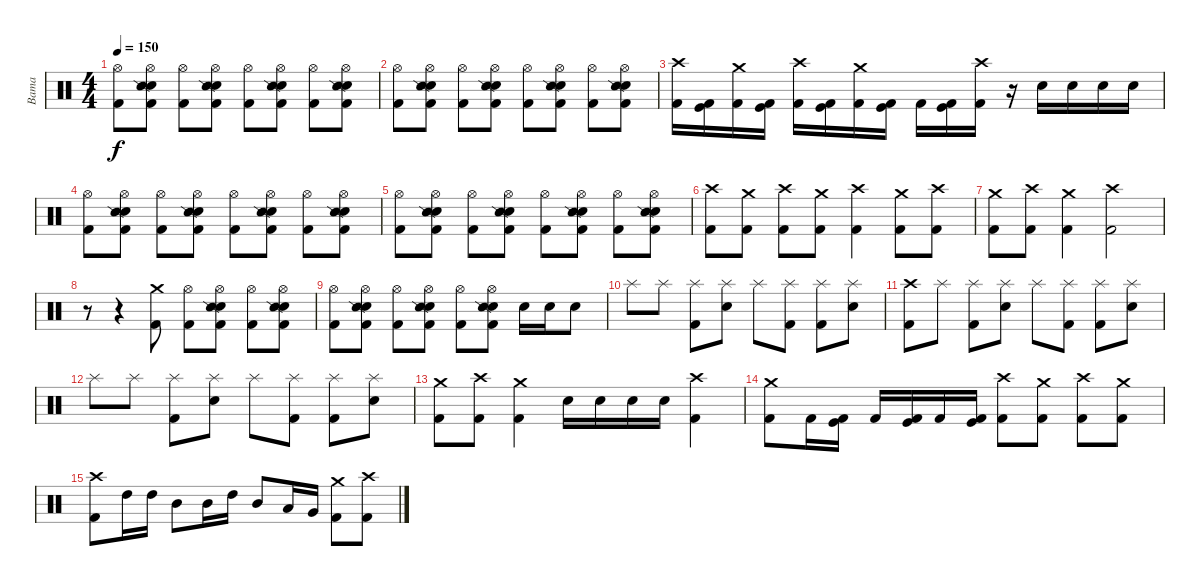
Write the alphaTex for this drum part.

\track ("Bama" "Bama") {instrument percussion}
\staff {score}
\articulation defaults
\ts (4 4)
\tempo 150
\clef neutral
\ks c
("Hi-Hat (open)" "Kick (hit) 2").8{dy f} ("Hi-Hat (open)" "Electric Snare (hit)" "Snare (side stick) 2" "Kick (hit) 2").8 ("Hi-Hat (open)" "Kick (hit) 2").8 ("Hi-Hat (open)" "Electric Snare (hit)" "Snare (side stick) 2" "Kick (hit) 2").8 ("Hi-Hat (open)" "Kick (hit) 2").8 ("Hi-Hat (open)" "Electric Snare (hit)" "Snare (side stick) 2" "Kick (hit) 2").8 ("Hi-Hat (open)" "Kick (hit) 2").8 ("Hi-Hat (open)" "Electric Snare (hit)" "Snare (side stick) 2" "Kick (hit) 2").8 |
("Hi-Hat (open)" "Kick (hit) 2").8 ("Hi-Hat (open)" "Electric Snare (hit)" "Snare (side stick) 2" "Kick (hit) 2").8 ("Hi-Hat (open)" "Kick (hit) 2").8 ("Hi-Hat (open)" "Electric Snare (hit)" "Snare (side stick) 2" "Kick (hit) 2").8 ("Hi-Hat (open)" "Kick (hit) 2").8 ("Hi-Hat (open)" "Electric Snare (hit)" "Snare (side stick) 2" "Kick (hit) 2").8 ("Hi-Hat (open)" "Kick (hit) 2").8 ("Hi-Hat (open)" "Electric Snare (hit)" "Snare (side stick) 2" "Kick (hit) 2").8 |
("Crash high (hit)" "Kick (hit) 2").16 ("Kick (hit)" "Kick (hit) 2").16 ("Crash medium (hit)" "Kick (hit) 2").16 ("Kick (hit)" "Kick (hit) 2").16 ("Crash high (hit)" "Kick (hit) 2").16 ("Kick (hit)" "Kick (hit) 2").16 ("Crash medium (hit)" "Kick (hit) 2").16 ("Kick (hit)" "Kick (hit) 2").16 "Kick (hit) 2".16 ("Kick (hit)" "Kick (hit) 2").16 ("Crash high (hit)" "Kick (hit) 2").16 r.16 "Electric Snare (hit)".16 "Electric Snare (hit)".16 "Electric Snare (hit)".16 "Electric Snare (hit)".16 |
("Hi-Hat (open)" "Kick (hit) 2").8 ("Hi-Hat (open)" "Electric Snare (hit)" "Snare (side stick) 2" "Kick (hit) 2").8 ("Hi-Hat (open)" "Kick (hit) 2").8 ("Hi-Hat (open)" "Electric Snare (hit)" "Snare (side stick) 2" "Kick (hit) 2").8 ("Hi-Hat (open)" "Kick (hit) 2").8 ("Hi-Hat (open)" "Electric Snare (hit)" "Snare (side stick) 2" "Kick (hit) 2").8 ("Hi-Hat (open)" "Kick (hit) 2").8 ("Hi-Hat (open)" "Electric Snare (hit)" "Snare (side stick) 2" "Kick (hit) 2").8 |
("Hi-Hat (open)" "Kick (hit) 2").8 ("Hi-Hat (open)" "Electric Snare (hit)" "Snare (side stick) 2" "Kick (hit) 2").8 ("Hi-Hat (open)" "Kick (hit) 2").8 ("Hi-Hat (open)" "Electric Snare (hit)" "Snare (side stick) 2" "Kick (hit) 2").8 ("Hi-Hat (open)" "Kick (hit) 2").8 ("Hi-Hat (open)" "Electric Snare (hit)" "Snare (side stick) 2" "Kick (hit) 2").8 ("Hi-Hat (open)" "Kick (hit) 2").8 ("Hi-Hat (open)" "Electric Snare (hit)" "Snare (side stick) 2" "Kick (hit) 2").8 |
("Crash high (hit)" "Kick (hit) 2").8 ("Crash medium (hit)" "Kick (hit) 2").8 ("Crash high (hit)" "Kick (hit) 2").8 ("Crash medium (hit)" "Kick (hit) 2").8 ("Crash high (hit)" "Kick (hit) 2").4 ("Crash medium (hit)" "Kick (hit) 2").8 ("Crash high (hit)" "Kick (hit) 2").8 |
("Crash medium (hit)" "Kick (hit) 2").8 ("Crash high (hit)" "Kick (hit) 2").8 ("Crash medium (hit)" "Kick (hit) 2").4 ("Crash high (hit)" "Kick (hit) 2").2 |
r.8 r.4 ("Crash medium (hit)" "Kick (hit) 2").8 ("Hi-Hat (open)" "Kick (hit) 2").8 ("Hi-Hat (open)" "Electric Snare (hit)" "Snare (side stick) 2" "Kick (hit) 2").8 ("Hi-Hat (open)" "Kick (hit) 2").8 ("Hi-Hat (open)" "Electric Snare (hit)" "Snare (side stick) 2" "Kick (hit) 2").8 |
("Hi-Hat (open)" "Kick (hit) 2").8 ("Hi-Hat (open)" "Electric Snare (hit)" "Snare (side stick) 2" "Kick (hit) 2").8 ("Hi-Hat (open)" "Kick (hit) 2").8 ("Hi-Hat (open)" "Electric Snare (hit)" "Snare (side stick) 2" "Kick (hit) 2").8 ("Hi-Hat (open)" "Kick (hit) 2").8 ("Hi-Hat (open)" "Electric Snare (hit)" "Snare (side stick) 2" "Kick (hit) 2").8 "Electric Snare (hit)".16 "Electric Snare (hit)".16 "Electric Snare (hit)".8 |
"Splash (hit)".8 "Splash (hit)".8 ("Splash (hit)" "Kick (hit) 2").8 ("Splash (hit)" "Electric Snare (hit)").8 "Splash (hit)".8 ("Splash (hit)" "Kick (hit) 2").8 ("Splash (hit)" "Kick (hit) 2").8 ("Splash (hit)" "Electric Snare (hit)").8 |
("Crash high (hit)" "Kick (hit) 2").8 "Splash (hit)".8 ("Splash (hit)" "Kick (hit) 2").8 ("Splash (hit)" "Electric Snare (hit)").8 "Splash (hit)".8 ("Splash (hit)" "Kick (hit) 2").8 ("Splash (hit)" "Kick (hit) 2").8 ("Splash (hit)" "Electric Snare (hit)").8 |
"Splash (hit)".8 "Splash (hit)".8 ("Splash (hit)" "Kick (hit) 2").8 ("Splash (hit)" "Electric Snare (hit)").8 "Splash (hit)".8 ("Splash (hit)" "Kick (hit) 2").8 ("Splash (hit)" "Kick (hit) 2").8 ("Splash (hit)" "Electric Snare (hit)").8 |
("Crash medium (hit)" "Kick (hit) 2").8 ("Crash high (hit)" "Kick (hit) 2").8 ("Crash medium (hit)" "Kick (hit) 2").4 "Electric Snare (hit)".16 "Electric Snare (hit)".16 "Electric Snare (hit)".16 "Electric Snare (hit)".16 ("Crash high (hit)" "Kick (hit) 2").4 |
("Crash medium (hit)" "Kick (hit) 2").8 "Kick (hit) 2".16 ("Kick (hit)" "Kick (hit) 2").16 "Kick (hit) 2".16 ("Kick (hit)" "Kick (hit) 2").16 "Kick (hit) 2".16 ("Kick (hit)" "Kick (hit) 2").16 ("Crash high (hit)" "Kick (hit) 2").8 ("Crash medium (hit)" "Kick (hit) 2").8 ("Crash high (hit)" "Kick (hit) 2").8 ("Crash medium (hit)" "Kick (hit) 2").8 |
("Crash high (hit)" "Kick (hit) 2").8 "High Tom (hit)".16 "High Tom (hit)".16 "Mid Tom (hit)".8 "Mid Tom (hit)".16 "High Tom (hit)".16 "Mid Tom (hit)".8 "Low Tom (hit)".16 "Very Low Tom (hit)".16 ("Crash medium (hit)" "Kick (hit) 2").8 ("Crash high (hit)" "Kick (hit) 2").8
